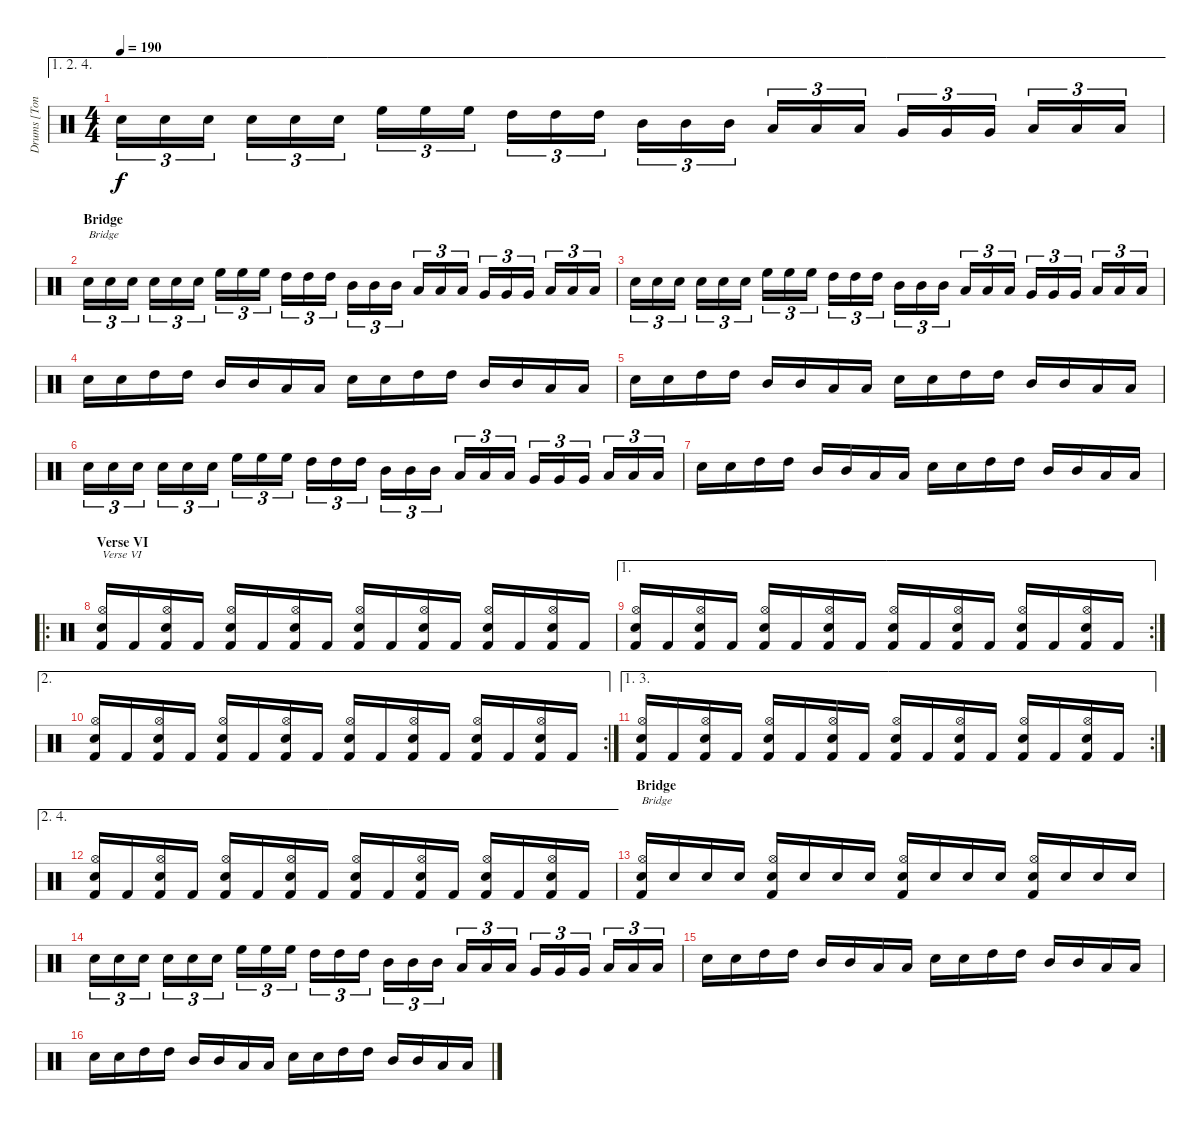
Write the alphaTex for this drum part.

\track ("Drums [Tony Laureano]" "Drums [Ton") {instrument percussion}
\staff {score}
\articulation defaults
\ae (1 2 4)
\ts (4 4)
\tempo 190
\clef neutral
\ks c "Electric Snare (hit)".16{tu (3 2) dy f} "Electric Snare (hit)".16{tu (3 2)} "Electric Snare (hit)".16{tu (3 2)} "Electric Snare (hit)".16{tu (3 2)} "Electric Snare (hit)".16{tu (3 2)} "Electric Snare (hit)".16{tu (3 2)} "High Floor Tom (hit)".16{tu (3 2)} "High Floor Tom (hit)".16{tu (3 2)} "High Floor Tom (hit)".16{tu (3 2)} "High Tom (hit)".16{tu (3 2)} "High Tom (hit)".16{tu (3 2)} "High Tom (hit)".16{tu (3 2)} "Mid Tom (hit)".16{tu (3 2)} "Mid Tom (hit)".16{tu (3 2)} "Mid Tom (hit)".16{tu (3 2)} "Low Tom (hit)".16{tu (3 2)} "Low Tom (hit)".16{tu (3 2)} "Low Tom (hit)".16{tu (3 2)} "Very Low Tom (hit)".16{tu (3 2)} "Very Low Tom (hit)".16{tu (3 2)} "Very Low Tom (hit)".16{tu (3 2)} "Low Floor Tom (hit)".16{tu (3 2)} "Low Floor Tom (hit)".16{tu (3 2)} "Low Floor Tom (hit)".16{tu (3 2)}
|
\section ("" "Bridge")
"Electric Snare (hit)".16{tu (3 2) txt "Bridge"} "Electric Snare (hit)".16{tu (3 2)} "Electric Snare (hit)".16{tu (3 2)} "Electric Snare (hit)".16{tu (3 2)} "Electric Snare (hit)".16{tu (3 2)} "Electric Snare (hit)".16{tu (3 2)} "High Floor Tom (hit)".16{tu (3 2)} "High Floor Tom (hit)".16{tu (3 2)} "High Floor Tom (hit)".16{tu (3 2)} "High Tom (hit)".16{tu (3 2)} "High Tom (hit)".16{tu (3 2)} "High Tom (hit)".16{tu (3 2)} "Mid Tom (hit)".16{tu (3 2)} "Mid Tom (hit)".16{tu (3 2)} "Mid Tom (hit)".16{tu (3 2)} "Low Tom (hit)".16{tu (3 2)} "Low Tom (hit)".16{tu (3 2)} "Low Tom (hit)".16{tu (3 2)} "Very Low Tom (hit)".16{tu (3 2)} "Very Low Tom (hit)".16{tu (3 2)} "Very Low Tom (hit)".16{tu (3 2)} "Low Floor Tom (hit)".16{tu (3 2)} "Low Floor Tom (hit)".16{tu (3 2)} "Low Floor Tom (hit)".16{tu (3 2)} |
"Electric Snare (hit)".16{tu (3 2)} "Electric Snare (hit)".16{tu (3 2)} "Electric Snare (hit)".16{tu (3 2)} "Electric Snare (hit)".16{tu (3 2)} "Electric Snare (hit)".16{tu (3 2)} "Electric Snare (hit)".16{tu (3 2)} "High Floor Tom (hit)".16{tu (3 2)} "High Floor Tom (hit)".16{tu (3 2)} "High Floor Tom (hit)".16{tu (3 2)} "High Tom (hit)".16{tu (3 2)} "High Tom (hit)".16{tu (3 2)} "High Tom (hit)".16{tu (3 2)} "Mid Tom (hit)".16{tu (3 2)} "Mid Tom (hit)".16{tu (3 2)} "Mid Tom (hit)".16{tu (3 2)} "Low Tom (hit)".16{tu (3 2)} "Low Tom (hit)".16{tu (3 2)} "Low Tom (hit)".16{tu (3 2)} "Very Low Tom (hit)".16{tu (3 2)} "Very Low Tom (hit)".16{tu (3 2)} "Very Low Tom (hit)".16{tu (3 2)} "Low Floor Tom (hit)".16{tu (3 2)} "Low Floor Tom (hit)".16{tu (3 2)} "Low Floor Tom (hit)".16{tu (3 2)} |
"Electric Snare (hit)".16 "Electric Snare (hit)".16 "High Tom (hit)".16 "High Tom (hit)".16 "Mid Tom (hit)".16 "Mid Tom (hit)".16 "Low Tom (hit)".16 "Low Tom (hit)".16 "Electric Snare (hit)".16 "Electric Snare (hit)".16 "High Tom (hit)".16 "High Tom (hit)".16 "Mid Tom (hit)".16 "Mid Tom (hit)".16 "Low Tom (hit)".16 "Low Tom (hit)".16 |
"Electric Snare (hit)".16 "Electric Snare (hit)".16 "High Tom (hit)".16 "High Tom (hit)".16 "Mid Tom (hit)".16 "Mid Tom (hit)".16 "Low Tom (hit)".16 "Low Tom (hit)".16 "Electric Snare (hit)".16 "Electric Snare (hit)".16 "High Tom (hit)".16 "High Tom (hit)".16 "Mid Tom (hit)".16 "Mid Tom (hit)".16 "Low Tom (hit)".16 "Low Tom (hit)".16 |
"Electric Snare (hit)".16{tu (3 2)} "Electric Snare (hit)".16{tu (3 2)} "Electric Snare (hit)".16{tu (3 2)} "Electric Snare (hit)".16{tu (3 2)} "Electric Snare (hit)".16{tu (3 2)} "Electric Snare (hit)".16{tu (3 2)} "High Floor Tom (hit)".16{tu (3 2)} "High Floor Tom (hit)".16{tu (3 2)} "High Floor Tom (hit)".16{tu (3 2)} "High Tom (hit)".16{tu (3 2)} "High Tom (hit)".16{tu (3 2)} "High Tom (hit)".16{tu (3 2)} "Mid Tom (hit)".16{tu (3 2)} "Mid Tom (hit)".16{tu (3 2)} "Mid Tom (hit)".16{tu (3 2)} "Low Tom (hit)".16{tu (3 2)} "Low Tom (hit)".16{tu (3 2)} "Low Tom (hit)".16{tu (3 2)} "Very Low Tom (hit)".16{tu (3 2)} "Very Low Tom (hit)".16{tu (3 2)} "Very Low Tom (hit)".16{tu (3 2)} "Low Floor Tom (hit)".16{tu (3 2)} "Low Floor Tom (hit)".16{tu (3 2)} "Low Floor Tom (hit)".16{tu (3 2)} |
"Electric Snare (hit)".16 "Electric Snare (hit)".16 "High Tom (hit)".16 "High Tom (hit)".16 "Mid Tom (hit)".16 "Mid Tom (hit)".16 "Low Tom (hit)".16 "Low Tom (hit)".16 "Electric Snare (hit)".16 "Electric Snare (hit)".16 "High Tom (hit)".16 "High Tom (hit)".16 "Mid Tom (hit)".16 "Mid Tom (hit)".16 "Low Tom (hit)".16 "Low Tom (hit)".16 |
\ro
\section ("" "Verse VI")
("Hi-Hat (open)" "Electric Snare (hit)" "Kick (hit) 2").16{txt "Verse VI"} "Kick (hit) 2".16 ("Hi-Hat (open)" "Electric Snare (hit)" "Kick (hit) 2").16 "Kick (hit) 2".16 ("Hi-Hat (open)" "Electric Snare (hit)" "Kick (hit) 2").16 "Kick (hit) 2".16 ("Hi-Hat (open)" "Electric Snare (hit)" "Kick (hit) 2").16 "Kick (hit) 2".16 ("Hi-Hat (open)" "Electric Snare (hit)" "Kick (hit) 2").16 "Kick (hit) 2".16 ("Hi-Hat (open)" "Electric Snare (hit)" "Kick (hit) 2").16 "Kick (hit) 2".16 ("Hi-Hat (open)" "Electric Snare (hit)" "Kick (hit) 2").16 "Kick (hit) 2".16 ("Hi-Hat (open)" "Electric Snare (hit)" "Kick (hit) 2").16 "Kick (hit) 2".16 |
\ae 1
\rc 2
("Hi-Hat (open)" "Electric Snare (hit)" "Kick (hit) 2").16 "Kick (hit) 2".16 ("Hi-Hat (open)" "Electric Snare (hit)" "Kick (hit) 2").16 "Kick (hit) 2".16 ("Hi-Hat (open)" "Electric Snare (hit)" "Kick (hit) 2").16 "Kick (hit) 2".16 ("Hi-Hat (open)" "Electric Snare (hit)" "Kick (hit) 2").16 "Kick (hit) 2".16 ("Hi-Hat (open)" "Electric Snare (hit)" "Kick (hit) 2").16 "Kick (hit) 2".16 ("Hi-Hat (open)" "Electric Snare (hit)" "Kick (hit) 2").16 "Kick (hit) 2".16 ("Hi-Hat (open)" "Electric Snare (hit)" "Kick (hit) 2").16 "Kick (hit) 2".16 ("Hi-Hat (open)" "Electric Snare (hit)" "Kick (hit) 2").16 "Kick (hit) 2".16 |
\ae 2
\rc 2
("Hi-Hat (open)" "Electric Snare (hit)" "Kick (hit) 2").16 "Kick (hit) 2".16 ("Hi-Hat (open)" "Electric Snare (hit)" "Kick (hit) 2").16 "Kick (hit) 2".16 ("Hi-Hat (open)" "Electric Snare (hit)" "Kick (hit) 2").16 "Kick (hit) 2".16 ("Hi-Hat (open)" "Electric Snare (hit)" "Kick (hit) 2").16 "Kick (hit) 2".16 ("Hi-Hat (open)" "Electric Snare (hit)" "Kick (hit) 2").16 "Kick (hit) 2".16 ("Hi-Hat (open)" "Electric Snare (hit)" "Kick (hit) 2").16 "Kick (hit) 2".16 ("Hi-Hat (open)" "Electric Snare (hit)" "Kick (hit) 2").16 "Kick (hit) 2".16 ("Hi-Hat (open)" "Electric Snare (hit)" "Kick (hit) 2").16 "Kick (hit) 2".16 |
\ae (1 3)
\rc 2
("Hi-Hat (open)" "Electric Snare (hit)" "Kick (hit) 2").16 "Kick (hit) 2".16 ("Hi-Hat (open)" "Electric Snare (hit)" "Kick (hit) 2").16 "Kick (hit) 2".16 ("Hi-Hat (open)" "Electric Snare (hit)" "Kick (hit) 2").16 "Kick (hit) 2".16 ("Hi-Hat (open)" "Electric Snare (hit)" "Kick (hit) 2").16 "Kick (hit) 2".16 ("Hi-Hat (open)" "Electric Snare (hit)" "Kick (hit) 2").16 "Kick (hit) 2".16 ("Hi-Hat (open)" "Electric Snare (hit)" "Kick (hit) 2").16 "Kick (hit) 2".16 ("Hi-Hat (open)" "Electric Snare (hit)" "Kick (hit) 2").16 "Kick (hit) 2".16 ("Hi-Hat (open)" "Electric Snare (hit)" "Kick (hit) 2").16 "Kick (hit) 2".16 |
\ae (2 4)
("Hi-Hat (open)" "Electric Snare (hit)" "Kick (hit) 2").16 "Kick (hit) 2".16 ("Hi-Hat (open)" "Electric Snare (hit)" "Kick (hit) 2").16 "Kick (hit) 2".16 ("Hi-Hat (open)" "Electric Snare (hit)" "Kick (hit) 2").16 "Kick (hit) 2".16 ("Hi-Hat (open)" "Electric Snare (hit)" "Kick (hit) 2").16 "Kick (hit) 2".16 ("Hi-Hat (open)" "Electric Snare (hit)" "Kick (hit) 2").16 "Kick (hit) 2".16 ("Hi-Hat (open)" "Electric Snare (hit)" "Kick (hit) 2").16 "Kick (hit) 2".16 ("Hi-Hat (open)" "Electric Snare (hit)" "Kick (hit) 2").16 "Kick (hit) 2".16 ("Hi-Hat (open)" "Electric Snare (hit)" "Kick (hit) 2").16 "Kick (hit) 2".16 |
\section ("" "Bridge")
("Hi-Hat (open)" "Electric Snare (hit)" "Kick (hit) 2").16{txt "Bridge"} "Electric Snare (hit)".16 "Electric Snare (hit)".16 "Electric Snare (hit)".16 ("Hi-Hat (open)" "Electric Snare (hit)" "Kick (hit) 2").16 "Electric Snare (hit)".16 "Electric Snare (hit)".16 "Electric Snare (hit)".16 ("Hi-Hat (open)" "Electric Snare (hit)" "Kick (hit) 2").16 "Electric Snare (hit)".16 "Electric Snare (hit)".16 "Electric Snare (hit)".16 ("Hi-Hat (open)" "Electric Snare (hit)" "Kick (hit) 2").16 "Electric Snare (hit)".16 "Electric Snare (hit)".16 "Electric Snare (hit)".16 |
"Electric Snare (hit)".16{tu (3 2)} "Electric Snare (hit)".16{tu (3 2)} "Electric Snare (hit)".16{tu (3 2)} "Electric Snare (hit)".16{tu (3 2)} "Electric Snare (hit)".16{tu (3 2)} "Electric Snare (hit)".16{tu (3 2)} "High Floor Tom (hit)".16{tu (3 2)} "High Floor Tom (hit)".16{tu (3 2)} "High Floor Tom (hit)".16{tu (3 2)} "High Tom (hit)".16{tu (3 2)} "High Tom (hit)".16{tu (3 2)} "High Tom (hit)".16{tu (3 2)} "Mid Tom (hit)".16{tu (3 2)} "Mid Tom (hit)".16{tu (3 2)} "Mid Tom (hit)".16{tu (3 2)} "Low Tom (hit)".16{tu (3 2)} "Low Tom (hit)".16{tu (3 2)} "Low Tom (hit)".16{tu (3 2)} "Very Low Tom (hit)".16{tu (3 2)} "Very Low Tom (hit)".16{tu (3 2)} "Very Low Tom (hit)".16{tu (3 2)} "Low Floor Tom (hit)".16{tu (3 2)} "Low Floor Tom (hit)".16{tu (3 2)} "Low Floor Tom (hit)".16{tu (3 2)} |
"Electric Snare (hit)".16 "Electric Snare (hit)".16 "High Tom (hit)".16 "High Tom (hit)".16 "Mid Tom (hit)".16 "Mid Tom (hit)".16 "Low Tom (hit)".16 "Low Tom (hit)".16 "Electric Snare (hit)".16 "Electric Snare (hit)".16 "High Tom (hit)".16 "High Tom (hit)".16 "Mid Tom (hit)".16 "Mid Tom (hit)".16 "Low Tom (hit)".16 "Low Tom (hit)".16 |
"Electric Snare (hit)".16 "Electric Snare (hit)".16 "High Tom (hit)".16 "High Tom (hit)".16 "Mid Tom (hit)".16 "Mid Tom (hit)".16 "Low Tom (hit)".16 "Low Tom (hit)".16 "Electric Snare (hit)".16 "Electric Snare (hit)".16 "High Tom (hit)".16 "High Tom (hit)".16 "Mid Tom (hit)".16 "Mid Tom (hit)".16 "Low Tom (hit)".16 "Low Tom (hit)".16
